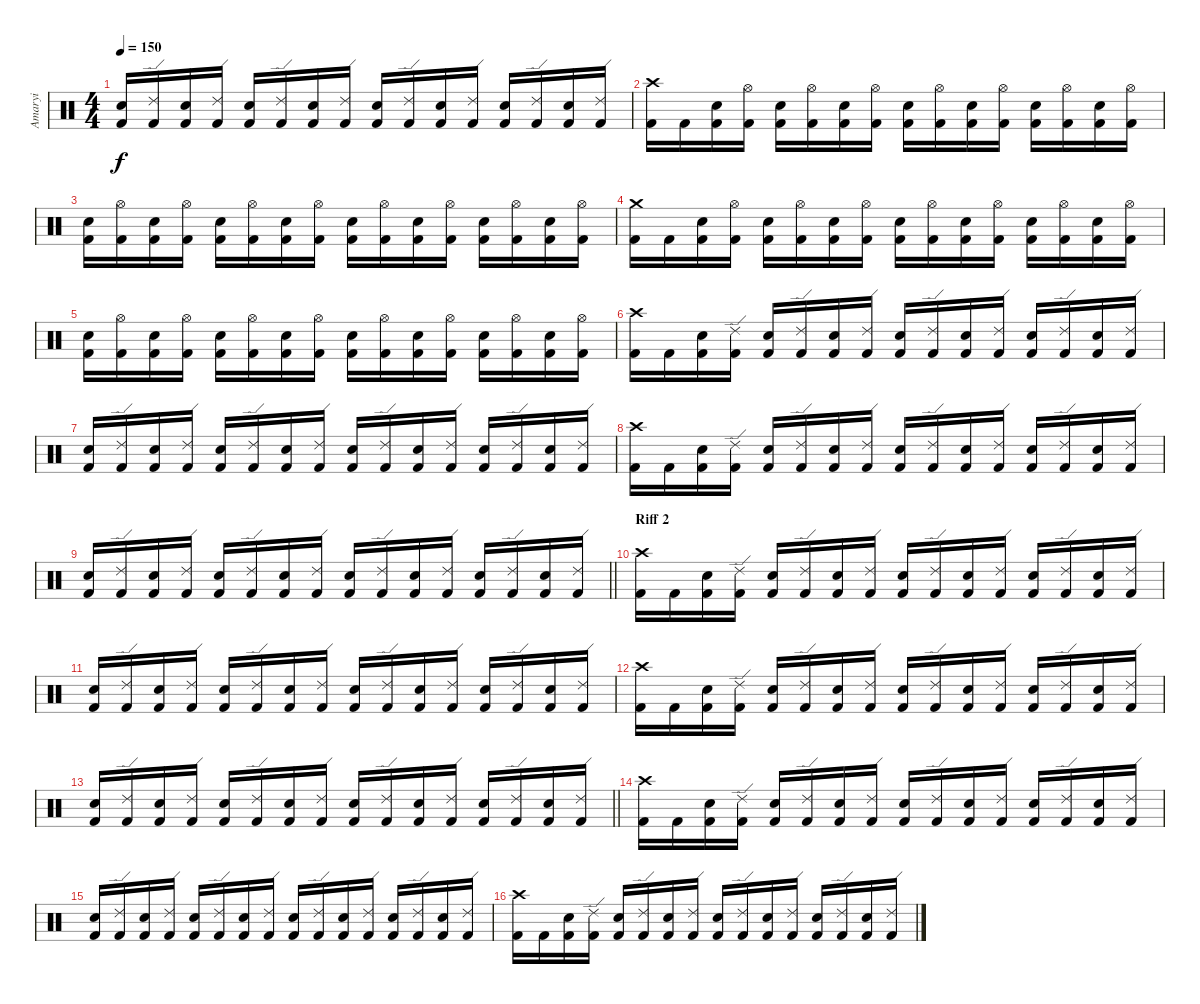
\track ("Amaryi" "Amaryi") {instrument percussion}
\staff {score}
\articulation defaults
\ts (4 4)
\tempo 150
\clef neutral
\ks c
("Electric Snare (hit)" "Kick (hit) 2").16{dy f} ("Ride (edge) 2" "Kick (hit) 2").16 ("Electric Snare (hit)" "Kick (hit) 2").16 ("Ride (edge) 2" "Kick (hit) 2").16 ("Electric Snare (hit)" "Kick (hit) 2").16 ("Ride (edge) 2" "Kick (hit) 2").16 ("Electric Snare (hit)" "Kick (hit) 2").16 ("Ride (edge) 2" "Kick (hit) 2").16 ("Electric Snare (hit)" "Kick (hit) 2").16 ("Ride (edge) 2" "Kick (hit) 2").16 ("Electric Snare (hit)" "Kick (hit) 2").16 ("Ride (edge) 2" "Kick (hit) 2").16 ("Electric Snare (hit)" "Kick (hit) 2").16 ("Ride (edge) 2" "Kick (hit) 2").16 ("Electric Snare (hit)" "Kick (hit) 2").16 ("Ride (edge) 2" "Kick (hit) 2").16 |
("Crash high (hit)" "Kick (hit) 2").16 "Kick (hit) 2".16 ("Electric Snare (hit)" "Kick (hit) 2").16 ("Hi-Hat (open)" "Kick (hit) 2").16 ("Electric Snare (hit)" "Kick (hit) 2").16 ("Hi-Hat (open)" "Kick (hit) 2").16 ("Electric Snare (hit)" "Kick (hit) 2").16 ("Hi-Hat (open)" "Kick (hit) 2").16 ("Electric Snare (hit)" "Kick (hit) 2").16 ("Hi-Hat (open)" "Kick (hit) 2").16 ("Electric Snare (hit)" "Kick (hit) 2").16 ("Hi-Hat (open)" "Kick (hit) 2").16 ("Electric Snare (hit)" "Kick (hit) 2").16 ("Hi-Hat (open)" "Kick (hit) 2").16 ("Electric Snare (hit)" "Kick (hit) 2").16 ("Hi-Hat (open)" "Kick (hit) 2").16 |
("Electric Snare (hit)" "Kick (hit) 2").16 ("Hi-Hat (open)" "Kick (hit) 2").16 ("Electric Snare (hit)" "Kick (hit) 2").16 ("Hi-Hat (open)" "Kick (hit) 2").16 ("Electric Snare (hit)" "Kick (hit) 2").16 ("Hi-Hat (open)" "Kick (hit) 2").16 ("Electric Snare (hit)" "Kick (hit) 2").16 ("Hi-Hat (open)" "Kick (hit) 2").16 ("Electric Snare (hit)" "Kick (hit) 2").16 ("Hi-Hat (open)" "Kick (hit) 2").16 ("Electric Snare (hit)" "Kick (hit) 2").16 ("Hi-Hat (open)" "Kick (hit) 2").16 ("Electric Snare (hit)" "Kick (hit) 2").16 ("Hi-Hat (open)" "Kick (hit) 2").16 ("Electric Snare (hit)" "Kick (hit) 2").16 ("Hi-Hat (open)" "Kick (hit) 2").16 |
("Crash medium (hit)" "Kick (hit) 2").16 "Kick (hit) 2".16 ("Electric Snare (hit)" "Kick (hit) 2").16 ("Hi-Hat (open)" "Kick (hit) 2").16 ("Electric Snare (hit)" "Kick (hit) 2").16 ("Hi-Hat (open)" "Kick (hit) 2").16 ("Electric Snare (hit)" "Kick (hit) 2").16 ("Hi-Hat (open)" "Kick (hit) 2").16 ("Electric Snare (hit)" "Kick (hit) 2").16 ("Hi-Hat (open)" "Kick (hit) 2").16 ("Electric Snare (hit)" "Kick (hit) 2").16 ("Hi-Hat (open)" "Kick (hit) 2").16 ("Electric Snare (hit)" "Kick (hit) 2").16 ("Hi-Hat (open)" "Kick (hit) 2").16 ("Electric Snare (hit)" "Kick (hit) 2").16 ("Hi-Hat (open)" "Kick (hit) 2").16 |
("Electric Snare (hit)" "Kick (hit) 2").16 ("Hi-Hat (open)" "Kick (hit) 2").16 ("Electric Snare (hit)" "Kick (hit) 2").16 ("Hi-Hat (open)" "Kick (hit) 2").16 ("Electric Snare (hit)" "Kick (hit) 2").16 ("Hi-Hat (open)" "Kick (hit) 2").16 ("Electric Snare (hit)" "Kick (hit) 2").16 ("Hi-Hat (open)" "Kick (hit) 2").16 ("Electric Snare (hit)" "Kick (hit) 2").16 ("Hi-Hat (open)" "Kick (hit) 2").16 ("Electric Snare (hit)" "Kick (hit) 2").16 ("Hi-Hat (open)" "Kick (hit) 2").16 ("Electric Snare (hit)" "Kick (hit) 2").16 ("Hi-Hat (open)" "Kick (hit) 2").16 ("Electric Snare (hit)" "Kick (hit) 2").16 ("Hi-Hat (open)" "Kick (hit) 2").16 |
("Crash high (hit)" "Kick (hit) 2").16 "Kick (hit) 2".16 ("Electric Snare (hit)" "Kick (hit) 2").16 ("Ride (edge) 2" "Kick (hit) 2").16 ("Electric Snare (hit)" "Kick (hit) 2").16 ("Ride (edge) 2" "Kick (hit) 2").16 ("Electric Snare (hit)" "Kick (hit) 2").16 ("Ride (edge) 2" "Kick (hit) 2").16 ("Electric Snare (hit)" "Kick (hit) 2").16 ("Ride (edge) 2" "Kick (hit) 2").16 ("Electric Snare (hit)" "Kick (hit) 2").16 ("Ride (edge) 2" "Kick (hit) 2").16 ("Electric Snare (hit)" "Kick (hit) 2").16 ("Ride (edge) 2" "Kick (hit) 2").16 ("Electric Snare (hit)" "Kick (hit) 2").16 ("Ride (edge) 2" "Kick (hit) 2").16 |
("Electric Snare (hit)" "Kick (hit) 2").16 ("Ride (edge) 2" "Kick (hit) 2").16 ("Electric Snare (hit)" "Kick (hit) 2").16 ("Ride (edge) 2" "Kick (hit) 2").16 ("Electric Snare (hit)" "Kick (hit) 2").16 ("Ride (edge) 2" "Kick (hit) 2").16 ("Electric Snare (hit)" "Kick (hit) 2").16 ("Ride (edge) 2" "Kick (hit) 2").16 ("Electric Snare (hit)" "Kick (hit) 2").16 ("Ride (edge) 2" "Kick (hit) 2").16 ("Electric Snare (hit)" "Kick (hit) 2").16 ("Ride (edge) 2" "Kick (hit) 2").16 ("Electric Snare (hit)" "Kick (hit) 2").16 ("Ride (edge) 2" "Kick (hit) 2").16 ("Electric Snare (hit)" "Kick (hit) 2").16 ("Ride (edge) 2" "Kick (hit) 2").16 |
("Crash high (hit)" "Kick (hit) 2").16 "Kick (hit) 2".16 ("Electric Snare (hit)" "Kick (hit) 2").16 ("Ride (edge) 2" "Kick (hit) 2").16 ("Electric Snare (hit)" "Kick (hit) 2").16 ("Ride (edge) 2" "Kick (hit) 2").16 ("Electric Snare (hit)" "Kick (hit) 2").16 ("Ride (edge) 2" "Kick (hit) 2").16 ("Electric Snare (hit)" "Kick (hit) 2").16 ("Ride (edge) 2" "Kick (hit) 2").16 ("Electric Snare (hit)" "Kick (hit) 2").16 ("Ride (edge) 2" "Kick (hit) 2").16 ("Electric Snare (hit)" "Kick (hit) 2").16 ("Ride (edge) 2" "Kick (hit) 2").16 ("Electric Snare (hit)" "Kick (hit) 2").16 ("Ride (edge) 2" "Kick (hit) 2").16 |
\barLineRight lightlight
("Electric Snare (hit)" "Kick (hit) 2").16 ("Ride (edge) 2" "Kick (hit) 2").16 ("Electric Snare (hit)" "Kick (hit) 2").16 ("Ride (edge) 2" "Kick (hit) 2").16 ("Electric Snare (hit)" "Kick (hit) 2").16 ("Ride (edge) 2" "Kick (hit) 2").16 ("Electric Snare (hit)" "Kick (hit) 2").16 ("Ride (edge) 2" "Kick (hit) 2").16 ("Electric Snare (hit)" "Kick (hit) 2").16 ("Ride (edge) 2" "Kick (hit) 2").16 ("Electric Snare (hit)" "Kick (hit) 2").16 ("Ride (edge) 2" "Kick (hit) 2").16 ("Electric Snare (hit)" "Kick (hit) 2").16 ("Ride (edge) 2" "Kick (hit) 2").16 ("Electric Snare (hit)" "Kick (hit) 2").16 ("Ride (edge) 2" "Kick (hit) 2").16 |
\section ("" "Riff 2")
("Crash high (hit)" "Kick (hit) 2").16 "Kick (hit) 2".16 ("Electric Snare (hit)" "Kick (hit) 2").16 ("Ride (edge) 2" "Kick (hit) 2").16 ("Electric Snare (hit)" "Kick (hit) 2").16 ("Ride (edge) 2" "Kick (hit) 2").16 ("Electric Snare (hit)" "Kick (hit) 2").16 ("Ride (edge) 2" "Kick (hit) 2").16 ("Electric Snare (hit)" "Kick (hit) 2").16 ("Ride (edge) 2" "Kick (hit) 2").16 ("Electric Snare (hit)" "Kick (hit) 2").16 ("Ride (edge) 2" "Kick (hit) 2").16 ("Electric Snare (hit)" "Kick (hit) 2").16 ("Ride (edge) 2" "Kick (hit) 2").16 ("Electric Snare (hit)" "Kick (hit) 2").16 ("Ride (edge) 2" "Kick (hit) 2").16 |
("Electric Snare (hit)" "Kick (hit) 2").16 ("Ride (edge) 2" "Kick (hit) 2").16 ("Electric Snare (hit)" "Kick (hit) 2").16 ("Ride (edge) 2" "Kick (hit) 2").16 ("Electric Snare (hit)" "Kick (hit) 2").16 ("Ride (edge) 2" "Kick (hit) 2").16 ("Electric Snare (hit)" "Kick (hit) 2").16 ("Ride (edge) 2" "Kick (hit) 2").16 ("Electric Snare (hit)" "Kick (hit) 2").16 ("Ride (edge) 2" "Kick (hit) 2").16 ("Electric Snare (hit)" "Kick (hit) 2").16 ("Ride (edge) 2" "Kick (hit) 2").16 ("Electric Snare (hit)" "Kick (hit) 2").16 ("Ride (edge) 2" "Kick (hit) 2").16 ("Electric Snare (hit)" "Kick (hit) 2").16 ("Ride (edge) 2" "Kick (hit) 2").16 |
("Crash high (hit)" "Kick (hit) 2").16 "Kick (hit) 2".16 ("Electric Snare (hit)" "Kick (hit) 2").16 ("Ride (edge) 2" "Kick (hit) 2").16 ("Electric Snare (hit)" "Kick (hit) 2").16 ("Ride (edge) 2" "Kick (hit) 2").16 ("Electric Snare (hit)" "Kick (hit) 2").16 ("Ride (edge) 2" "Kick (hit) 2").16 ("Electric Snare (hit)" "Kick (hit) 2").16 ("Ride (edge) 2" "Kick (hit) 2").16 ("Electric Snare (hit)" "Kick (hit) 2").16 ("Ride (edge) 2" "Kick (hit) 2").16 ("Electric Snare (hit)" "Kick (hit) 2").16 ("Ride (edge) 2" "Kick (hit) 2").16 ("Electric Snare (hit)" "Kick (hit) 2").16 ("Ride (edge) 2" "Kick (hit) 2").16 |
\barLineRight lightlight
("Electric Snare (hit)" "Kick (hit) 2").16 ("Ride (edge) 2" "Kick (hit) 2").16 ("Electric Snare (hit)" "Kick (hit) 2").16 ("Ride (edge) 2" "Kick (hit) 2").16 ("Electric Snare (hit)" "Kick (hit) 2").16 ("Ride (edge) 2" "Kick (hit) 2").16 ("Electric Snare (hit)" "Kick (hit) 2").16 ("Ride (edge) 2" "Kick (hit) 2").16 ("Electric Snare (hit)" "Kick (hit) 2").16 ("Ride (edge) 2" "Kick (hit) 2").16 ("Electric Snare (hit)" "Kick (hit) 2").16 ("Ride (edge) 2" "Kick (hit) 2").16 ("Electric Snare (hit)" "Kick (hit) 2").16 ("Ride (edge) 2" "Kick (hit) 2").16 ("Electric Snare (hit)" "Kick (hit) 2").16 ("Ride (edge) 2" "Kick (hit) 2").16 |
("Crash high (hit)" "Kick (hit) 2").16 "Kick (hit) 2".16 ("Electric Snare (hit)" "Kick (hit) 2").16 ("Ride (edge) 2" "Kick (hit) 2").16 ("Electric Snare (hit)" "Kick (hit) 2").16 ("Ride (edge) 2" "Kick (hit) 2").16 ("Electric Snare (hit)" "Kick (hit) 2").16 ("Ride (edge) 2" "Kick (hit) 2").16 ("Electric Snare (hit)" "Kick (hit) 2").16 ("Ride (edge) 2" "Kick (hit) 2").16 ("Electric Snare (hit)" "Kick (hit) 2").16 ("Ride (edge) 2" "Kick (hit) 2").16 ("Electric Snare (hit)" "Kick (hit) 2").16 ("Ride (edge) 2" "Kick (hit) 2").16 ("Electric Snare (hit)" "Kick (hit) 2").16 ("Ride (edge) 2" "Kick (hit) 2").16 |
("Electric Snare (hit)" "Kick (hit) 2").16 ("Ride (edge) 2" "Kick (hit) 2").16 ("Electric Snare (hit)" "Kick (hit) 2").16 ("Ride (edge) 2" "Kick (hit) 2").16 ("Electric Snare (hit)" "Kick (hit) 2").16 ("Ride (edge) 2" "Kick (hit) 2").16 ("Electric Snare (hit)" "Kick (hit) 2").16 ("Ride (edge) 2" "Kick (hit) 2").16 ("Electric Snare (hit)" "Kick (hit) 2").16 ("Ride (edge) 2" "Kick (hit) 2").16 ("Electric Snare (hit)" "Kick (hit) 2").16 ("Ride (edge) 2" "Kick (hit) 2").16 ("Electric Snare (hit)" "Kick (hit) 2").16 ("Ride (edge) 2" "Kick (hit) 2").16 ("Electric Snare (hit)" "Kick (hit) 2").16 ("Ride (edge) 2" "Kick (hit) 2").16 |
("Crash high (hit)" "Kick (hit) 2").16 "Kick (hit) 2".16 ("Electric Snare (hit)" "Kick (hit) 2").16 ("Ride (edge) 2" "Kick (hit) 2").16 ("Electric Snare (hit)" "Kick (hit) 2").16 ("Ride (edge) 2" "Kick (hit) 2").16 ("Electric Snare (hit)" "Kick (hit) 2").16 ("Ride (edge) 2" "Kick (hit) 2").16 ("Electric Snare (hit)" "Kick (hit) 2").16 ("Ride (edge) 2" "Kick (hit) 2").16 ("Electric Snare (hit)" "Kick (hit) 2").16 ("Ride (edge) 2" "Kick (hit) 2").16 ("Electric Snare (hit)" "Kick (hit) 2").16 ("Ride (edge) 2" "Kick (hit) 2").16 ("Electric Snare (hit)" "Kick (hit) 2").16 ("Ride (edge) 2" "Kick (hit) 2").16
